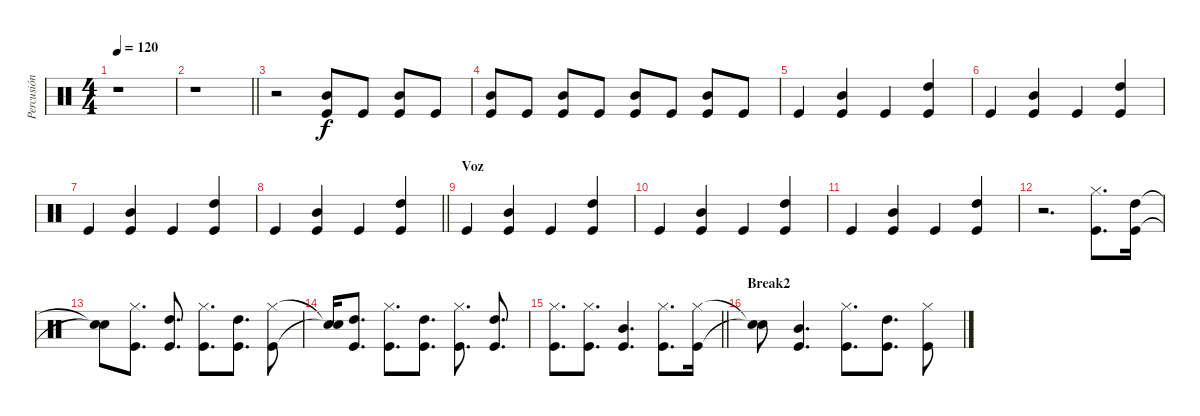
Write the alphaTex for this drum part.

\track ("Percusión" "Percusión") {instrument percussion}
\staff {score}
\articulation defaults
\ts (4 4)
\tempo 120
\clef neutral
\ks c
r.1{dy f} |
\barLineRight lightlight
r.1 |
r.2 ("Mid Tom (hit)" "Kick (hit)").8 "Kick (hit)".8 ("Mid Tom (hit)" "Kick (hit)").8 "Kick (hit)".8 |
("Mid Tom (hit)" "Kick (hit)").8 "Kick (hit)".8 ("Mid Tom (hit)" "Kick (hit)").8 "Kick (hit)".8 ("Mid Tom (hit)" "Kick (hit)").8 "Kick (hit)".8 ("Mid Tom (hit)" "Kick (hit)").8 "Kick (hit)".8 |
"Kick (hit)".4 ("Mid Tom (hit)" "Kick (hit)").4 "Kick (hit)".4 ("High Tom (hit)" "Kick (hit)").4 |
"Kick (hit)".4 ("Mid Tom (hit)" "Kick (hit)").4 "Kick (hit)".4 ("High Tom (hit)" "Kick (hit)").4 |
"Kick (hit)".4 ("Mid Tom (hit)" "Kick (hit)").4 "Kick (hit)".4 ("High Tom (hit)" "Kick (hit)").4 |
\barLineRight lightlight "Kick (hit)".4
("Mid Tom (hit)" "Kick (hit)").4 "Kick (hit)".4 ("High Tom (hit)" "Kick (hit)").4 |
\section ("" "Voz")
"Kick (hit)".4 ("Mid Tom (hit)" "Kick (hit)").4 "Kick (hit)".4 ("High Tom (hit)" "Kick (hit)").4 |
"Kick (hit)".4 ("Mid Tom (hit)" "Kick (hit)").4 "Kick (hit)".4 ("High Tom (hit)" "Kick (hit)").4 |
"Kick (hit)".4 ("Mid Tom (hit)" "Kick (hit)").4 "Kick (hit)".4 ("High Tom (hit)" "Kick (hit)").4 |
r.2{d} ("Hi-Hat (closed)" "Kick (hit)").8{d} ("High Tom (hit)" "Kick (hit)").16 |
("Snare (hit)"{t} "Snare (hit)"{t}).8 ("Hi-Hat (closed)" "Kick (hit)").8{d} ("High Tom (hit)" "Kick (hit)").8{d} ("Hi-Hat (closed)" "Kick (hit)").8{d} ("High Tom (hit)" "Kick (hit)").8{d} ("Hi-Hat (closed)" "Kick (hit)").8 |
("Snare (hit)"{t} "Snare (hit)"{t}).16 ("High Tom (hit)" "Kick (hit)").8{d} ("Hi-Hat (closed)" "Kick (hit)").8{d} ("High Tom (hit)" "Kick (hit)").8{d} ("Hi-Hat (closed)" "Kick (hit)").8{d} ("High Tom (hit)" "Kick (hit)").8{d} |
\barLineRight lightlight
("Hi-Hat (closed)" "Kick (hit)").8{d} ("Hi-Hat (closed)" "Kick (hit)").8{d} ("Mid Tom (hit)" "Kick (hit)").4{d} ("Hi-Hat (closed)" "Kick (hit)").8{d} ("Hi-Hat (closed)" "Kick (hit)").16 |
\section ("" "Break2")
("Snare (hit)"{t} "Snare (hit)"{t}).8 ("Mid Tom (hit)" "Kick (hit)").4{d} ("Hi-Hat (closed)" "Kick (hit)").8{d} ("High Tom (hit)" "Kick (hit)").8{d} ("Hi-Hat (closed)" "Kick (hit)").8
